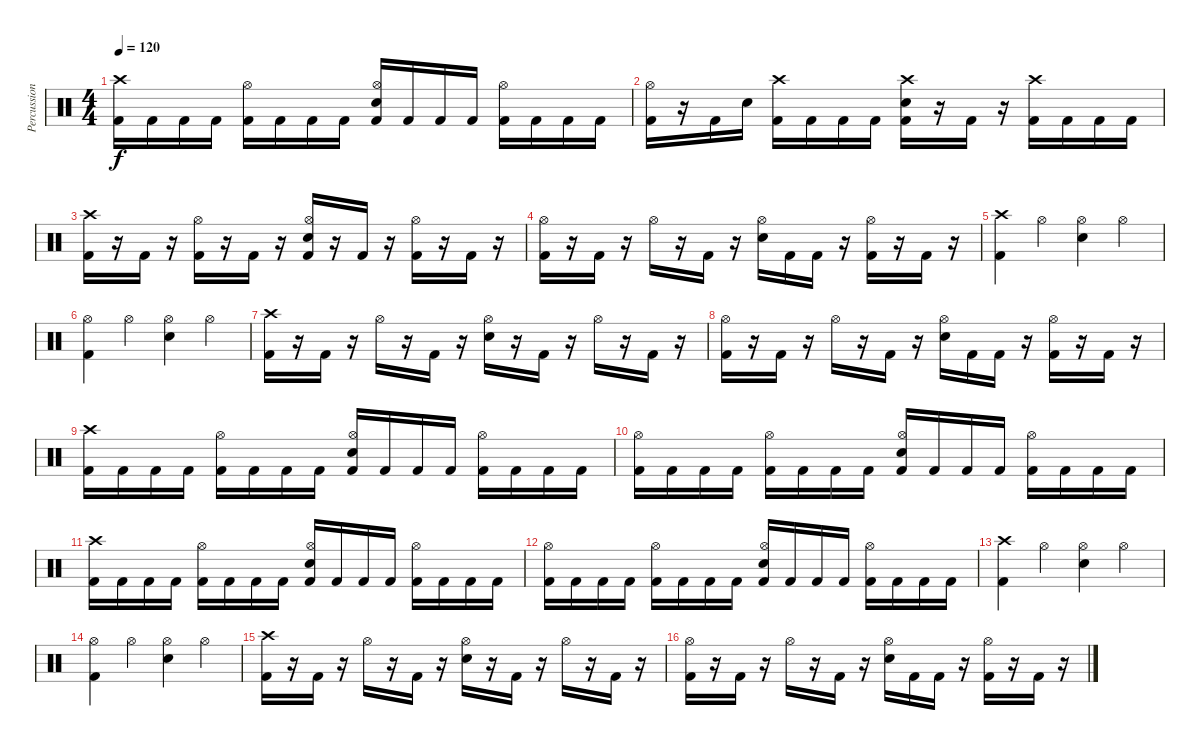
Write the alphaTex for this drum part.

\track ("Percussion" "Percussion") {instrument percussion}
\staff {score}
\articulation defaults
\ts (4 4)
\tempo 120
\clef neutral
\ks c
("Crash high (hit)" "Kick (hit) 2").16{dy f} "Kick (hit) 2".16 "Kick (hit) 2".16 "Kick (hit) 2".16 ("Hi-Hat (open)" "Kick (hit) 2").16 "Kick (hit) 2".16 "Kick (hit) 2".16 "Kick (hit) 2".16 ("Hi-Hat (open)" "Snare (hit) 2" "Kick (hit) 2").16 "Kick (hit) 2".16 "Kick (hit) 2".16 "Kick (hit) 2".16 ("Hi-Hat (open)" "Kick (hit) 2").16 "Kick (hit) 2".16 "Kick (hit) 2".16 "Kick (hit) 2".16 |
("Hi-Hat (open)" "Kick (hit) 2").16 r.16 "Kick (hit) 2".16 "Snare (hit) 2".16 ("Crash high (hit)" "Kick (hit) 2").16 "Kick (hit) 2".16 "Kick (hit) 2".16 "Kick (hit) 2".16 ("Crash high (hit)" "Snare (hit) 2" "Kick (hit) 2").16 r.16 "Kick (hit) 2".16 r.16 ("Crash high (hit)" "Kick (hit) 2").16 "Kick (hit) 2".16 "Kick (hit) 2".16 "Kick (hit) 2".16 |
("Crash high (hit)" "Kick (hit) 2").16 r.16 "Kick (hit) 2".16 r.16 ("Hi-Hat (open)" "Kick (hit) 2").16 r.16 "Kick (hit) 2".16 r.16 ("Hi-Hat (open)" "Snare (hit) 2" "Kick (hit) 2").16 r.16 "Kick (hit) 2".16 r.16 ("Hi-Hat (open)" "Kick (hit) 2").16 r.16 "Kick (hit) 2".16 r.16 |
("Hi-Hat (open)" "Kick (hit) 2").16 r.16 "Kick (hit) 2".16 r.16 "Hi-Hat (open)".16 r.16 "Kick (hit) 2".16 r.16 ("Hi-Hat (open)" "Snare (hit) 2").16 "Kick (hit) 2".16 "Kick (hit) 2".16 r.16 ("Hi-Hat (open)" "Kick (hit) 2").16 r.16 "Kick (hit) 2".16 r.16 |
("Crash high (hit)" "Kick (hit) 2").4 "Hi-Hat (open)".4 ("Hi-Hat (open)" "Snare (hit) 2").4 "Hi-Hat (open)".4 |
("Hi-Hat (open)" "Kick (hit) 2").4 "Hi-Hat (open)".4 ("Hi-Hat (open)" "Snare (hit) 2").4 "Hi-Hat (open)".4 |
("Crash high (hit)" "Kick (hit) 2").16 r.16 "Kick (hit) 2".16 r.16 "Hi-Hat (open)".16 r.16 "Kick (hit) 2".16 r.16 ("Hi-Hat (open)" "Snare (hit) 2").16 r.16 "Kick (hit) 2".16 r.16 "Hi-Hat (open)".16 r.16 "Kick (hit) 2".16 r.16 |
("Hi-Hat (open)" "Kick (hit) 2").16 r.16 "Kick (hit) 2".16 r.16 "Hi-Hat (open)".16 r.16 "Kick (hit) 2".16 r.16 ("Hi-Hat (open)" "Snare (hit) 2").16 "Kick (hit) 2".16 "Kick (hit) 2".16 r.16 ("Hi-Hat (open)" "Kick (hit) 2").16 r.16 "Kick (hit) 2".16 r.16 |
("Crash high (hit)" "Kick (hit) 2").16 "Kick (hit) 2".16 "Kick (hit) 2".16 "Kick (hit) 2".16 ("Hi-Hat (open)" "Kick (hit) 2").16 "Kick (hit) 2".16 "Kick (hit) 2".16 "Kick (hit) 2".16 ("Hi-Hat (open)" "Snare (hit) 2" "Kick (hit) 2").16 "Kick (hit) 2".16 "Kick (hit) 2".16 "Kick (hit) 2".16 ("Hi-Hat (open)" "Kick (hit) 2").16 "Kick (hit) 2".16 "Kick (hit) 2".16 "Kick (hit) 2".16 |
("Hi-Hat (open)" "Kick (hit) 2").16 "Kick (hit) 2".16 "Kick (hit) 2".16 "Kick (hit) 2".16 ("Hi-Hat (open)" "Kick (hit) 2").16 "Kick (hit) 2".16 "Kick (hit) 2".16 "Kick (hit) 2".16 ("Hi-Hat (open)" "Snare (hit) 2" "Kick (hit) 2").16 "Kick (hit) 2".16 "Kick (hit) 2".16 "Kick (hit) 2".16 ("Hi-Hat (open)" "Kick (hit) 2").16 "Kick (hit) 2".16 "Kick (hit) 2".16 "Kick (hit) 2".16 |
("Crash high (hit)" "Kick (hit) 2").16 "Kick (hit) 2".16 "Kick (hit) 2".16 "Kick (hit) 2".16 ("Hi-Hat (open)" "Kick (hit) 2").16 "Kick (hit) 2".16 "Kick (hit) 2".16 "Kick (hit) 2".16 ("Hi-Hat (open)" "Snare (hit) 2" "Kick (hit) 2").16 "Kick (hit) 2".16 "Kick (hit) 2".16 "Kick (hit) 2".16 ("Hi-Hat (open)" "Kick (hit) 2").16 "Kick (hit) 2".16 "Kick (hit) 2".16 "Kick (hit) 2".16 |
("Hi-Hat (open)" "Kick (hit) 2").16 "Kick (hit) 2".16 "Kick (hit) 2".16 "Kick (hit) 2".16 ("Hi-Hat (open)" "Kick (hit) 2").16 "Kick (hit) 2".16 "Kick (hit) 2".16 "Kick (hit) 2".16 ("Hi-Hat (open)" "Snare (hit) 2" "Kick (hit) 2").16 "Kick (hit) 2".16 "Kick (hit) 2".16 "Kick (hit) 2".16 ("Hi-Hat (open)" "Kick (hit) 2").16 "Kick (hit) 2".16 "Kick (hit) 2".16 "Kick (hit) 2".16 |
("Crash high (hit)" "Kick (hit) 2").4 "Hi-Hat (open)".4 ("Hi-Hat (open)" "Snare (hit) 2").4 "Hi-Hat (open)".4 |
("Hi-Hat (open)" "Kick (hit) 2").4 "Hi-Hat (open)".4 ("Hi-Hat (open)" "Snare (hit) 2").4 "Hi-Hat (open)".4 |
("Crash high (hit)" "Kick (hit) 2").16 r.16 "Kick (hit) 2".16 r.16 "Hi-Hat (open)".16 r.16 "Kick (hit) 2".16 r.16 ("Hi-Hat (open)" "Snare (hit) 2").16 r.16 "Kick (hit) 2".16 r.16 "Hi-Hat (open)".16 r.16 "Kick (hit) 2".16 r.16 |
("Hi-Hat (open)" "Kick (hit) 2").16 r.16 "Kick (hit) 2".16 r.16 "Hi-Hat (open)".16 r.16 "Kick (hit) 2".16 r.16 ("Hi-Hat (open)" "Snare (hit) 2").16 "Kick (hit) 2".16 "Kick (hit) 2".16 r.16 ("Hi-Hat (open)" "Kick (hit) 2").16 r.16 "Kick (hit) 2".16 r.16
